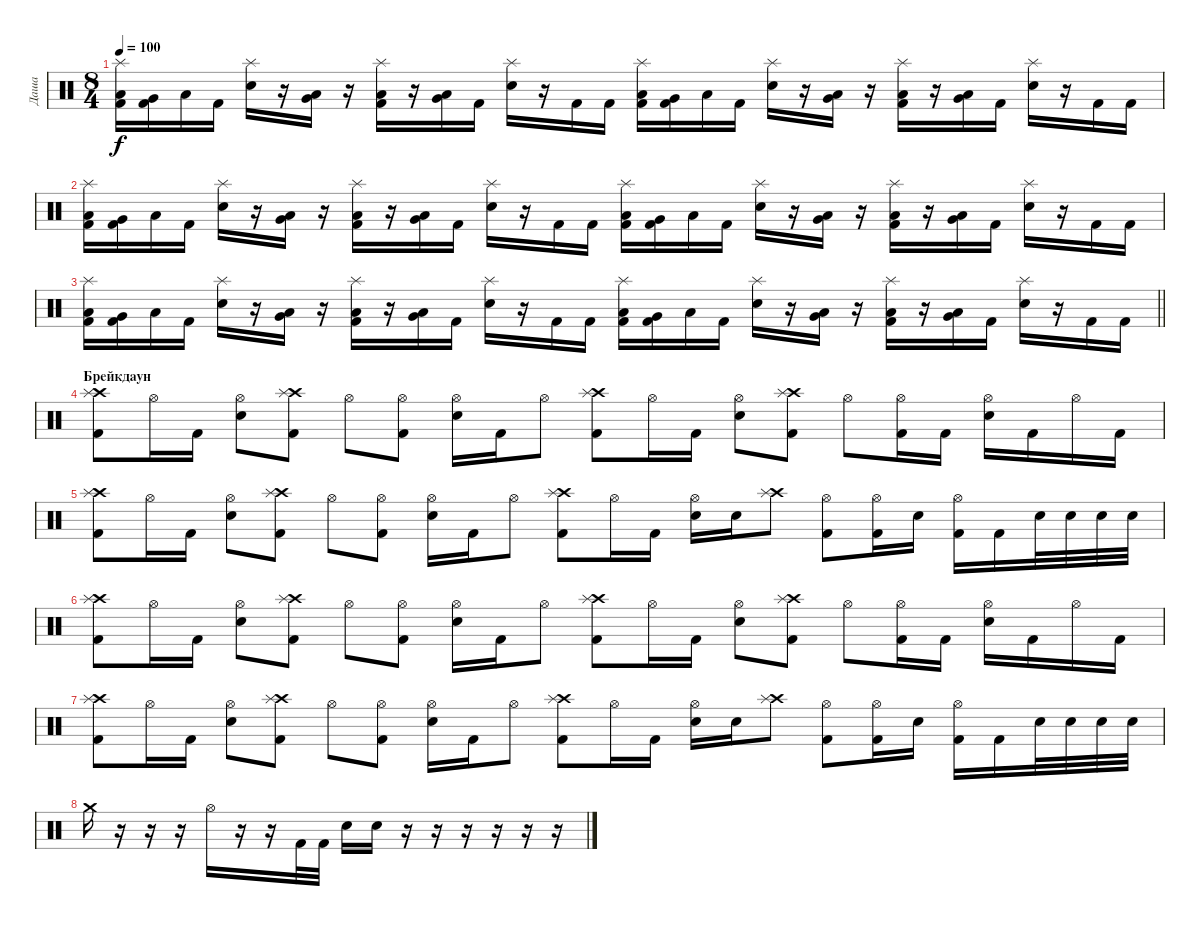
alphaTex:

\track ("Даша" "Даша") {instrument percussion}
\staff {score}
\articulation defaults
\ts (8 4)
\tempo 100
\clef neutral
\ks c
("Splash (hit)" "Low Tom (hit)" "Kick (hit) 2").16{dy f} ("Very Low Tom (hit)" "Kick (hit) 2").16 "Low Floor Tom (hit)".16 "Kick (hit) 2".16 ("Splash (hit)" "Electric Snare (hit)").16 r.16 ("Low Tom (hit)" "Very Low Tom (hit)").16 r.16 ("Splash (hit)" "Low Tom (hit)" "Kick (hit) 2").16 r.16 ("Very Low Tom (hit)" "Low Floor Tom (hit)").16 "Kick (hit) 2".16 ("Splash (hit)" "Electric Snare (hit)").16 r.16 "Kick (hit) 2".16 "Kick (hit) 2".16 ("Splash (hit)" "Low Tom (hit)" "Kick (hit) 2").16 ("Very Low Tom (hit)" "Kick (hit) 2").16 "Low Floor Tom (hit)".16 "Kick (hit) 2".16 ("Splash (hit)" "Electric Snare (hit)").16 r.16 ("Low Tom (hit)" "Very Low Tom (hit)").16 r.16 ("Splash (hit)" "Low Tom (hit)" "Kick (hit) 2").16 r.16 ("Very Low Tom (hit)" "Low Floor Tom (hit)").16 "Kick (hit) 2".16 ("Splash (hit)" "Electric Snare (hit)").16 r.16 "Kick (hit) 2".16 "Kick (hit) 2".16 |
("Splash (hit)" "Low Tom (hit)" "Kick (hit) 2").16 ("Very Low Tom (hit)" "Kick (hit) 2").16 "Low Floor Tom (hit)".16 "Kick (hit) 2".16 ("Splash (hit)" "Electric Snare (hit)").16 r.16 ("Low Tom (hit)" "Very Low Tom (hit)").16 r.16 ("Splash (hit)" "Low Tom (hit)" "Kick (hit) 2").16 r.16 ("Very Low Tom (hit)" "Low Floor Tom (hit)").16 "Kick (hit) 2".16 ("Splash (hit)" "Electric Snare (hit)").16 r.16 "Kick (hit) 2".16 "Kick (hit) 2".16 ("Splash (hit)" "Low Tom (hit)" "Kick (hit) 2").16 ("Very Low Tom (hit)" "Kick (hit) 2").16 "Low Floor Tom (hit)".16 "Kick (hit) 2".16 ("Splash (hit)" "Electric Snare (hit)").16 r.16 ("Low Tom (hit)" "Very Low Tom (hit)").16 r.16 ("Splash (hit)" "Low Tom (hit)" "Kick (hit) 2").16 r.16 ("Very Low Tom (hit)" "Low Floor Tom (hit)").16 "Kick (hit) 2".16 ("Splash (hit)" "Electric Snare (hit)").16 r.16 "Kick (hit) 2".16 "Kick (hit) 2".16 |
\barLineRight lightlight
("Splash (hit)" "Low Tom (hit)" "Kick (hit) 2").16 ("Very Low Tom (hit)" "Kick (hit) 2").16 "Low Floor Tom (hit)".16 "Kick (hit) 2".16 ("Splash (hit)" "Electric Snare (hit)").16 r.16 ("Low Tom (hit)" "Very Low Tom (hit)").16 r.16 ("Splash (hit)" "Low Tom (hit)" "Kick (hit) 2").16 r.16 ("Very Low Tom (hit)" "Low Floor Tom (hit)").16 "Kick (hit) 2".16 ("Splash (hit)" "Electric Snare (hit)").16 r.16 "Kick (hit) 2".16 "Kick (hit) 2".16 ("Splash (hit)" "Low Tom (hit)" "Kick (hit) 2").16 ("Very Low Tom (hit)" "Kick (hit) 2").16 "Low Floor Tom (hit)".16 "Kick (hit) 2".16 ("Splash (hit)" "Electric Snare (hit)").16 r.16 ("Low Tom (hit)" "Very Low Tom (hit)").16 r.16 ("Splash (hit)" "Low Tom (hit)" "Kick (hit) 2").16 r.16 ("Very Low Tom (hit)" "Low Floor Tom (hit)").16 "Kick (hit) 2".16 ("Splash (hit)" "Electric Snare (hit)").16 r.16 "Kick (hit) 2".16 "Kick (hit) 2".16 |
\section ("" "Брейкдаун")
("Crash high (hit)" "Splash (hit)" "Kick (hit) 2").8 "Hi-Hat (open)".16 "Kick (hit) 2".16 ("Hi-Hat (open)" "Electric Snare (hit)").8 ("Crash high (hit)" "Splash (hit)" "Kick (hit) 2").8 "Hi-Hat (open)".8 ("Hi-Hat (open)" "Kick (hit) 2").8 ("Hi-Hat (open)" "Electric Snare (hit)").16 "Kick (hit) 2".16 "Hi-Hat (open)".8 ("Crash high (hit)" "Splash (hit)" "Kick (hit) 2").8 "Hi-Hat (open)".16 "Kick (hit) 2".16 ("Hi-Hat (open)" "Electric Snare (hit)").8 ("Crash high (hit)" "Splash (hit)" "Kick (hit) 2").8 "Hi-Hat (open)".8 ("Hi-Hat (open)" "Kick (hit) 2").16 "Kick (hit) 2".16 ("Hi-Hat (open)" "Electric Snare (hit)").16 "Kick (hit) 2".16 "Hi-Hat (open)".16 "Kick (hit) 2".16 |
("Crash high (hit)" "Splash (hit)" "Kick (hit) 2").8 "Hi-Hat (open)".16 "Kick (hit) 2".16 ("Hi-Hat (open)" "Electric Snare (hit)").8 ("Crash high (hit)" "Splash (hit)" "Kick (hit) 2").8 "Hi-Hat (open)".8 ("Hi-Hat (open)" "Kick (hit) 2").8 ("Hi-Hat (open)" "Electric Snare (hit)").16 "Kick (hit) 2".16 "Hi-Hat (open)".8 ("Crash high (hit)" "Splash (hit)" "Kick (hit) 2").8 "Hi-Hat (open)".16 "Kick (hit) 2".16 ("Hi-Hat (open)" "Electric Snare (hit)").16 "Electric Snare (hit)".16 ("Crash high (hit)" "Splash (hit)").8 ("Hi-Hat (open)" "Kick (hit) 2").8 ("Hi-Hat (open)" "Kick (hit) 2").16 "Electric Snare (hit)".16 ("Hi-Hat (open)" "Kick (hit) 2").16 "Kick (hit) 2".16 "Electric Snare (hit)".32 "Electric Snare (hit)".32 "Electric Snare (hit)".32 "Electric Snare (hit)".32 |
("Crash high (hit)" "Splash (hit)" "Kick (hit) 2").8 "Hi-Hat (open)".16 "Kick (hit) 2".16 ("Hi-Hat (open)" "Electric Snare (hit)").8 ("Crash high (hit)" "Splash (hit)" "Kick (hit) 2").8 "Hi-Hat (open)".8 ("Hi-Hat (open)" "Kick (hit) 2").8 ("Hi-Hat (open)" "Electric Snare (hit)").16 "Kick (hit) 2".16 "Hi-Hat (open)".8 ("Crash high (hit)" "Splash (hit)" "Kick (hit) 2").8 "Hi-Hat (open)".16 "Kick (hit) 2".16 ("Hi-Hat (open)" "Electric Snare (hit)").8 ("Crash high (hit)" "Splash (hit)" "Kick (hit) 2").8 "Hi-Hat (open)".8 ("Hi-Hat (open)" "Kick (hit) 2").16 "Kick (hit) 2".16 ("Hi-Hat (open)" "Electric Snare (hit)").16 "Kick (hit) 2".16 "Hi-Hat (open)".16 "Kick (hit) 2".16 |
("Crash high (hit)" "Splash (hit)" "Kick (hit) 2").8 "Hi-Hat (open)".16 "Kick (hit) 2".16 ("Hi-Hat (open)" "Electric Snare (hit)").8 ("Crash high (hit)" "Splash (hit)" "Kick (hit) 2").8 "Hi-Hat (open)".8 ("Hi-Hat (open)" "Kick (hit) 2").8 ("Hi-Hat (open)" "Electric Snare (hit)").16 "Kick (hit) 2".16 "Hi-Hat (open)".8 ("Crash high (hit)" "Splash (hit)" "Kick (hit) 2").8 "Hi-Hat (open)".16 "Kick (hit) 2".16 ("Hi-Hat (open)" "Electric Snare (hit)").16 "Electric Snare (hit)".16 ("Crash high (hit)" "Splash (hit)").8 ("Hi-Hat (open)" "Kick (hit) 2").8 ("Hi-Hat (open)" "Kick (hit) 2").16 "Electric Snare (hit)".16 ("Hi-Hat (open)" "Kick (hit) 2").16 "Kick (hit) 2".16 "Electric Snare (hit)".32 "Electric Snare (hit)".32 "Electric Snare (hit)".32 "Electric Snare (hit)".32 |
"Crash medium (hit)".16 r.16 r.16 r.16 "Hi-Hat (open)".16 r.16 r.16 "Kick (hit) 2".32 "Kick (hit) 2".32 "Electric Snare (hit)".16 "Electric Snare (hit)".16 r.16 r.16 r.16 r.16 r.16 r.16
